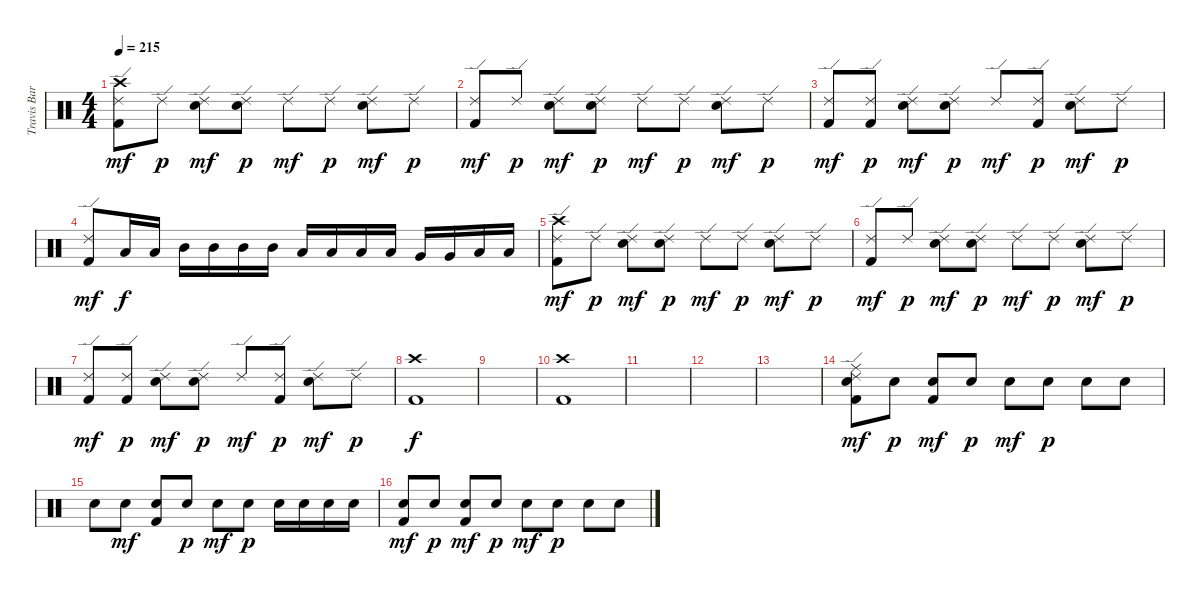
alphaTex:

\track ("Travis Barker" "Travis Bar") {instrument percussion}
\staff {score}
\articulation defaults
\ts (4 4)
\tempo 215
\clef neutral
\ks c
("Crash high (hit)" "Ride (edge) 2" "Kick (hit) 2").8{dy mf} "Ride (edge) 2".8{dy p} ("Ride (edge) 2" "Snare (hit) 2").8{dy mf} ("Ride (edge) 2" "Snare (hit) 2").8{dy p} "Ride (edge) 2".8{dy mf} "Ride (edge) 2".8{dy p} ("Ride (edge) 2" "Snare (hit) 2").8{dy mf} "Ride (edge) 2".8{dy p} |
("Ride (edge) 2" "Kick (hit) 2").8{dy mf} "Ride (edge) 2".8{dy p} ("Ride (edge) 2" "Snare (hit) 2").8{dy mf} ("Ride (edge) 2" "Snare (hit) 2").8{dy p} "Ride (edge) 2".8{dy mf} "Ride (edge) 2".8{dy p} ("Ride (edge) 2" "Snare (hit) 2").8{dy mf} "Ride (edge) 2".8{dy p} |
("Ride (edge) 2" "Kick (hit) 2").8{dy mf} ("Ride (edge) 2" "Kick (hit) 2").8{dy p} ("Ride (edge) 2" "Snare (hit) 2").8{dy mf} ("Ride (edge) 2" "Snare (hit) 2").8{dy p} "Ride (edge) 2".8{dy mf} ("Ride (edge) 2" "Kick (hit) 2").8{dy p} ("Ride (edge) 2" "Snare (hit) 2").8{dy mf} "Ride (edge) 2".8{dy p} |
("Ride (edge) 2" "Kick (hit) 2").8{dy mf} "Low Tom (hit)".16{dy f} "Low Tom (hit)".16 "Mid Tom (hit)".16 "Mid Tom (hit)".16 "Mid Tom (hit)".16 "Mid Tom (hit)".16 "Low Tom (hit)".16 "Low Tom (hit)".16 "Low Tom (hit)".16 "Low Tom (hit)".16 "Very Low Tom (hit)".16 "Very Low Tom (hit)".16 "Low Floor Tom (hit)".16 "Low Floor Tom (hit)".16 |
("Crash high (hit)" "Ride (edge) 2" "Kick (hit) 2").8{dy mf} "Ride (edge) 2".8{dy p} ("Ride (edge) 2" "Snare (hit) 2").8{dy mf} ("Ride (edge) 2" "Snare (hit) 2").8{dy p} "Ride (edge) 2".8{dy mf} "Ride (edge) 2".8{dy p} ("Ride (edge) 2" "Snare (hit) 2").8{dy mf} "Ride (edge) 2".8{dy p} |
("Ride (edge) 2" "Kick (hit) 2").8{dy mf} "Ride (edge) 2".8{dy p} ("Ride (edge) 2" "Snare (hit) 2").8{dy mf} ("Ride (edge) 2" "Snare (hit) 2").8{dy p} "Ride (edge) 2".8{dy mf} "Ride (edge) 2".8{dy p} ("Ride (edge) 2" "Snare (hit) 2").8{dy mf} "Ride (edge) 2".8{dy p} |
("Ride (edge) 2" "Kick (hit) 2").8{dy mf} ("Ride (edge) 2" "Kick (hit) 2").8{dy p} ("Ride (edge) 2" "Snare (hit) 2").8{dy mf} ("Ride (edge) 2" "Snare (hit) 2").8{dy p} "Ride (edge) 2".8{dy mf} ("Ride (edge) 2" "Kick (hit) 2").8{dy p} ("Ride (edge) 2" "Snare (hit) 2").8{dy mf} "Ride (edge) 2".8{dy p} |
("Crash high (hit)" "Kick (hit) 2").1{dy f} |
|
("Crash high (hit)" "Kick (hit) 2").1 |
|
|
|
("Ride (middle)" "Ride (edge) 2" "Snare (hit) 2" "Kick (hit) 2").8{dy mf} "Snare (hit) 2".8{dy p} ("Snare (hit) 2" "Kick (hit) 2").8{dy mf} "Snare (hit) 2".8{dy p} "Snare (hit) 2".8{dy mf} "Snare (hit) 2".8{dy p} "Snare (hit) 2".8 "Snare (hit) 2".8 |
"Snare (hit) 2".8 "Snare (hit) 2".8{dy mf} ("Snare (hit) 2" "Kick (hit) 2").8 "Snare (hit) 2".8{dy p} "Snare (hit) 2".8{dy mf} "Snare (hit) 2".8{dy p} "Snare (hit) 2".16 "Snare (hit) 2".16 "Snare (hit) 2".16 "Snare (hit) 2".16 |
("Snare (hit) 2" "Kick (hit) 2").8{dy mf} "Snare (hit) 2".8{dy p} ("Snare (hit) 2" "Kick (hit) 2").8{dy mf} "Snare (hit) 2".8{dy p} "Snare (hit) 2".8{dy mf} "Snare (hit) 2".8{dy p} "Snare (hit) 2".8 "Snare (hit) 2".8
